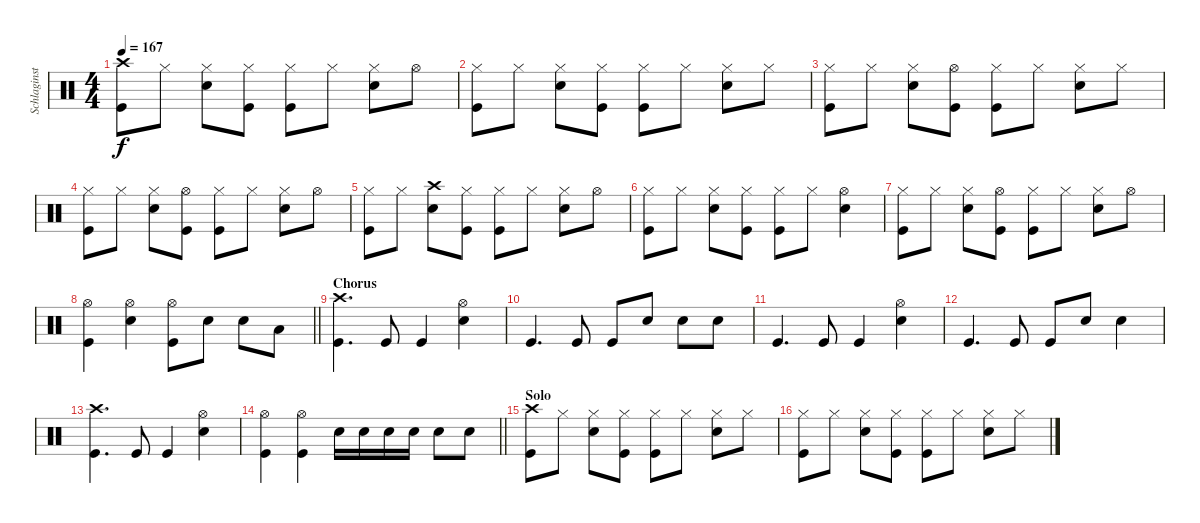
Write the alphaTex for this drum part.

\track ("Schlaginstrumente - Auswahl" "Schlaginst") {instrument percussion}
\staff {score}
\articulation defaults
\ts (4 4)
\tempo 167
\clef neutral
\ks c
("Crash high (hit)" "Kick (hit)").8{dy f} "Hi-Hat (closed)".8 ("Hi-Hat (closed)" "Snare (hit) 2").8 ("Hi-Hat (closed)" "Kick (hit)").8 ("Hi-Hat (closed)" "Kick (hit)").8 "Hi-Hat (closed)".8 ("Hi-Hat (closed)" "Snare (hit) 2").8 "Hi-Hat (open)".8 |
("Hi-Hat (closed)" "Kick (hit)").8 "Hi-Hat (closed)".8 ("Hi-Hat (closed)" "Snare (hit) 2").8 ("Hi-Hat (closed)" "Kick (hit)").8 ("Hi-Hat (closed)" "Kick (hit)").8 "Hi-Hat (closed)".8 ("Hi-Hat (closed)" "Snare (hit) 2").8 "Hi-Hat (closed)".8 |
("Hi-Hat (closed)" "Kick (hit)").8 "Hi-Hat (closed)".8 ("Hi-Hat (closed)" "Snare (hit) 2").8 ("Hi-Hat (open)" "Kick (hit)").8 ("Hi-Hat (closed)" "Kick (hit)").8 "Hi-Hat (closed)".8 ("Hi-Hat (closed)" "Snare (hit) 2").8 "Hi-Hat (closed)".8 |
("Hi-Hat (closed)" "Kick (hit)").8 "Hi-Hat (closed)".8 ("Hi-Hat (closed)" "Snare (hit) 2").8 ("Hi-Hat (open)" "Kick (hit)").8 ("Hi-Hat (closed)" "Kick (hit)").8 "Hi-Hat (closed)".8 ("Hi-Hat (closed)" "Snare (hit) 2").8 "Hi-Hat (open)".8 |
("Hi-Hat (closed)" "Kick (hit)").8 "Hi-Hat (closed)".8 ("Crash high (hit)" "Snare (hit) 2").8 ("Hi-Hat (closed)" "Kick (hit)").8 ("Hi-Hat (closed)" "Kick (hit)").8 "Hi-Hat (closed)".8 ("Hi-Hat (closed)" "Snare (hit) 2").8 "Hi-Hat (open)".8 |
("Hi-Hat (closed)" "Kick (hit)").8 "Hi-Hat (closed)".8 ("Hi-Hat (closed)" "Snare (hit) 2").8 ("Hi-Hat (closed)" "Kick (hit)").8 ("Hi-Hat (closed)" "Kick (hit)").8 "Hi-Hat (closed)".8 ("Hi-Hat (open)" "Snare (hit) 2").4 |
("Hi-Hat (closed)" "Kick (hit)").8 "Hi-Hat (closed)".8 ("Hi-Hat (closed)" "Snare (hit) 2").8 ("Hi-Hat (open)" "Kick (hit)").8 ("Hi-Hat (closed)" "Kick (hit)").8 "Hi-Hat (closed)".8 ("Hi-Hat (closed)" "Snare (hit) 2").8 "Hi-Hat (open)".8 |
\barLineRight lightlight
("Hi-Hat (open)" "Kick (hit)").4 ("Hi-Hat (open)" "Snare (hit) 2").4 ("Hi-Hat (open)" "Kick (hit)").8 "Snare (hit) 2".8 "Snare (hit) 2".8 "Low Tom (hit)".8 |
\section ("" "Chorus")
("Crash high (hit)" "Kick (hit)").4{d} "Kick (hit)".8 "Kick (hit)".4 ("Hi-Hat (open)" "Snare (hit) 2").4 |
"Kick (hit)".4{d} "Kick (hit)".8 "Kick (hit)".8 "Snare (hit) 2".8 "Snare (hit) 2".8 "Snare (hit) 2".8 |
"Kick (hit)".4{d} "Kick (hit)".8 "Kick (hit)".4 ("Hi-Hat (open)" "Snare (hit) 2").4 |
"Kick (hit)".4{d} "Kick (hit)".8 "Kick (hit)".8 "Snare (hit) 2".8 "Snare (hit) 2".4 |
("Crash high (hit)" "Kick (hit)").4{d} "Kick (hit)".8 "Kick (hit)".4 ("Hi-Hat (open)" "Snare (hit) 2").4 |
\barLineRight lightlight
("Hi-Hat (open)" "Kick (hit)").4 ("Hi-Hat (open)" "Kick (hit)").4 "Snare (hit) 2".16 "Snare (hit) 2".16 "Snare (hit) 2".16 "Snare (hit) 2".16 "Snare (hit) 2".8 "Snare (hit) 2".8 |
\section ("" "Solo")
("Crash high (hit)" "Kick (hit)").8 "Hi-Hat (closed)".8 ("Hi-Hat (closed)" "Snare (hit) 2").8 ("Hi-Hat (closed)" "Kick (hit)").8 ("Hi-Hat (closed)" "Kick (hit)").8 "Hi-Hat (closed)".8 ("Hi-Hat (closed)" "Snare (hit) 2").8 "Hi-Hat (closed)".8 |
("Hi-Hat (closed)" "Kick (hit)").8 "Hi-Hat (closed)".8 ("Hi-Hat (closed)" "Snare (hit) 2").8 ("Hi-Hat (closed)" "Kick (hit)").8 ("Hi-Hat (closed)" "Kick (hit)").8 "Hi-Hat (closed)".8 ("Hi-Hat (closed)" "Snare (hit) 2").8 "Hi-Hat (closed)".8
